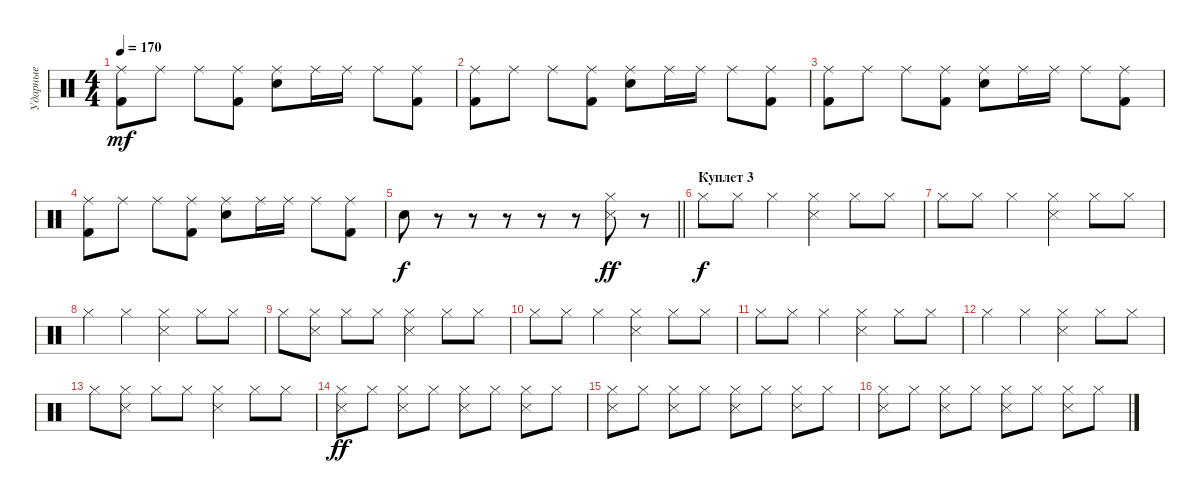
\track ("Ударные" "Ударные") {instrument percussion}
\staff {score}
\articulation defaults
\ts (4 4)
\tempo 170
\clef neutral
\ks c
("Ride (middle)" "Kick (hit) 2").8{dy mf} "Ride (middle)".8 "Ride (middle)".8 ("Ride (middle)" "Kick (hit) 2").8 ("Ride (middle)" "Snare (hit) 2").8 "Ride (middle)".16 "Ride (middle)".16 "Ride (middle)".8 ("Ride (middle)" "Kick (hit) 2").8 |
("Ride (middle)" "Kick (hit) 2").8 "Ride (middle)".8 "Ride (middle)".8 ("Ride (middle)" "Kick (hit) 2").8 ("Ride (middle)" "Snare (hit) 2").8 "Ride (middle)".16 "Ride (middle)".16 "Ride (middle)".8 ("Ride (middle)" "Kick (hit) 2").8 |
("Ride (middle)" "Kick (hit) 2").8 "Ride (middle)".8 "Ride (middle)".8 ("Ride (middle)" "Kick (hit) 2").8 ("Ride (middle)" "Snare (hit) 2").8 "Ride (middle)".16 "Ride (middle)".16 "Ride (middle)".8 ("Ride (middle)" "Kick (hit) 2").8 |
("Ride (middle)" "Kick (hit) 2").8 "Ride (middle)".8 "Ride (middle)".8 ("Ride (middle)" "Kick (hit) 2").8 ("Ride (middle)" "Snare (hit) 2").8 "Ride (middle)".16 "Ride (middle)".16 "Ride (middle)".8 ("Ride (middle)" "Kick (hit) 2").8 |
\barLineRight lightlight "Snare (hit) 2".8{dy f}
r.8 r.8 r.8 r.8 r.8 ("Hi-Hat (closed)" "Snare (side stick) 3").8{dy ff} r.8 |
\section ("" "Куплет 3")
"Hi-Hat (closed)".8{dy f} "Hi-Hat (closed)".8 "Hi-Hat (closed)".4 ("Hi-Hat (closed)" "Snare (side stick) 3").4 "Hi-Hat (closed)".8 "Hi-Hat (closed)".8 |
"Hi-Hat (closed)".8 "Hi-Hat (closed)".8 "Hi-Hat (closed)".4 ("Hi-Hat (closed)" "Snare (side stick) 3").4 "Hi-Hat (closed)".8 "Hi-Hat (closed)".8 |
"Hi-Hat (closed)".4 "Hi-Hat (closed)".4 ("Hi-Hat (closed)" "Snare (side stick) 3").4 "Hi-Hat (closed)".8 "Hi-Hat (closed)".8 |
"Hi-Hat (closed)".8 ("Hi-Hat (closed)" "Snare (side stick) 3").8 "Hi-Hat (closed)".8 "Hi-Hat (closed)".8 ("Hi-Hat (closed)" "Snare (side stick) 3").4 "Hi-Hat (closed)".8 "Hi-Hat (closed)".8 |
"Hi-Hat (closed)".8 "Hi-Hat (closed)".8 "Hi-Hat (closed)".4 ("Hi-Hat (closed)" "Snare (side stick) 3").4 "Hi-Hat (closed)".8 "Hi-Hat (closed)".8 |
"Hi-Hat (closed)".8 "Hi-Hat (closed)".8 "Hi-Hat (closed)".4 ("Hi-Hat (closed)" "Snare (side stick) 3").4 "Hi-Hat (closed)".8 "Hi-Hat (closed)".8 |
"Hi-Hat (closed)".4 "Hi-Hat (closed)".4 ("Hi-Hat (closed)" "Snare (side stick) 3").4 "Hi-Hat (closed)".8 "Hi-Hat (closed)".8 |
"Hi-Hat (closed)".8 ("Hi-Hat (closed)" "Snare (side stick) 3").8 "Hi-Hat (closed)".8 "Hi-Hat (closed)".8 ("Hi-Hat (closed)" "Snare (side stick) 3").4 "Hi-Hat (closed)".8 "Hi-Hat (closed)".8 |
("Hi-Hat (closed)" "Snare (side stick) 3").8{dy ff} "Hi-Hat (closed)".8 ("Hi-Hat (closed)" "Snare (side stick) 3").8 "Hi-Hat (closed)".8 ("Hi-Hat (closed)" "Snare (side stick) 3").8 "Hi-Hat (closed)".8 ("Hi-Hat (closed)" "Snare (side stick) 3").8 "Hi-Hat (closed)".8 |
("Hi-Hat (closed)" "Snare (side stick) 3").8 "Hi-Hat (closed)".8 ("Hi-Hat (closed)" "Snare (side stick) 3").8 "Hi-Hat (closed)".8 ("Hi-Hat (closed)" "Snare (side stick) 3").8 "Hi-Hat (closed)".8 ("Hi-Hat (closed)" "Snare (side stick) 3").8 "Hi-Hat (closed)".8 |
("Hi-Hat (closed)" "Snare (side stick) 3").8 "Hi-Hat (closed)".8 ("Hi-Hat (closed)" "Snare (side stick) 3").8 "Hi-Hat (closed)".8 ("Hi-Hat (closed)" "Snare (side stick) 3").8 "Hi-Hat (closed)".8 ("Hi-Hat (closed)" "Snare (side stick) 3").8 "Hi-Hat (closed)".8
